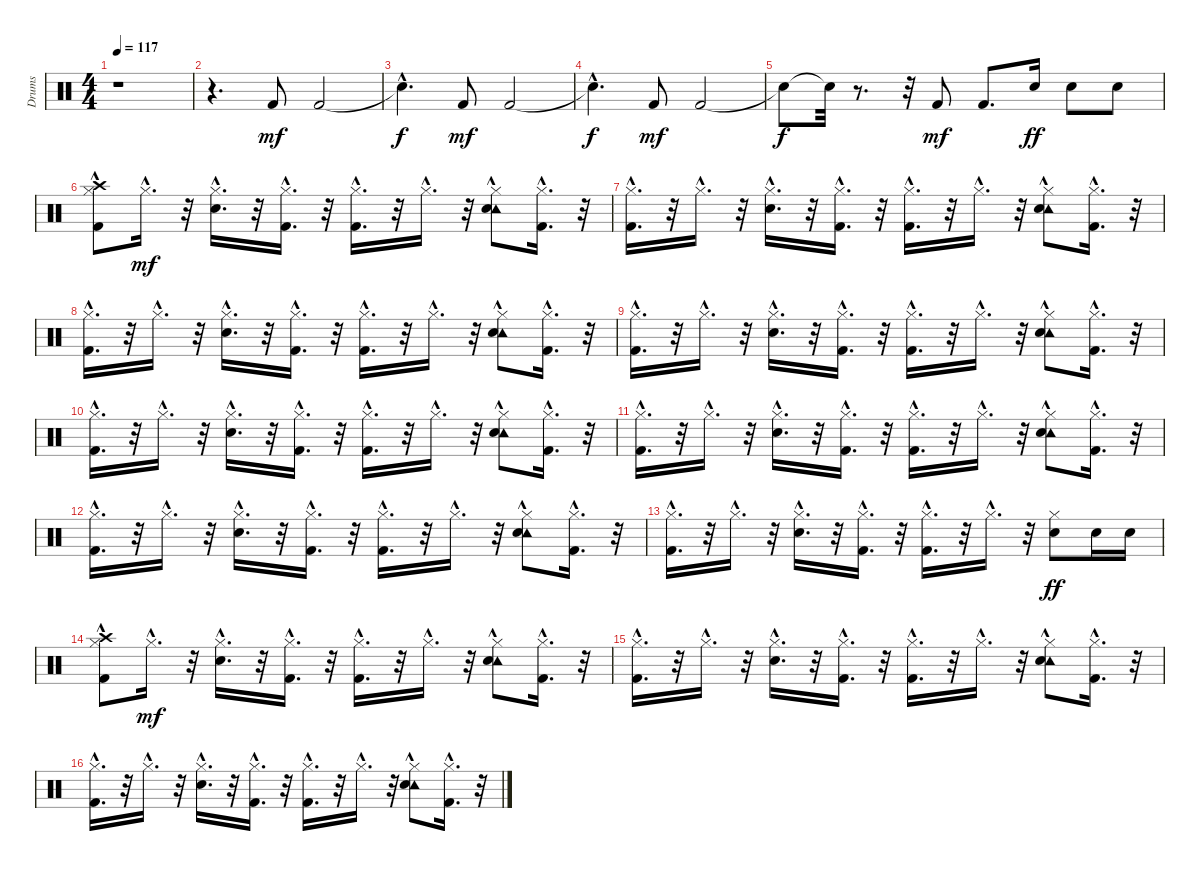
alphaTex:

\track ("Drums" "Drums") {instrument percussion}
\staff {score}
\articulation defaults
\ts (4 4)
\tempo 117
\clef neutral
\ks c
r.1{dy mf} |
r.4{d} "Kick (hit) 2".8{volume 9} "Kick (hit) 2".2 |
"Snare (hit)"{hac t}.4{d dy f} "Kick (hit) 2".8{dy mf} "Kick (hit) 2".2 |
"Snare (hit)"{hac t}.4{d dy f} "Kick (hit) 2".8{dy mf} "Kick (hit) 2".2 |
"Snare (hit)"{t}.8{dy f} "Snare (hit)"{t}.32 r.8{d} r.32 "Kick (hit) 2".8{dy mf} "Kick (hit) 2".8{d} "Snare (hit) 2".16{dy ff} "Snare (hit) 2".8 "Snare (hit) 2".8 |
("Kick (hit) 2"{hac} "Hi-Hat (closed)"{hac} "Crash high (hit)").8 "Hi-Hat (closed)"{hac}.16{d dy mf} r.32 ("Snare (hit) 2"{hac} "Hi-Hat (closed)"{hac}).16{d} r.32 ("Kick (hit) 2"{hac} "Hi-Hat (closed)"{hac}).16{d} r.32 ("Kick (hit) 2"{hac} "Hi-Hat (closed)"{hac}).16{d} r.32 "Hi-Hat (closed)"{hac}.16{d} r.32 ("Tambourine (hit)" "Snare (hit) 2" "Hi-Hat (closed)"{hac}).8 ("Kick (hit) 2"{hac} "Hi-Hat (closed)"{hac}).16{d} r.32 |
("Kick (hit) 2"{hac} "Hi-Hat (closed)"{hac}).16{d} r.32 "Hi-Hat (closed)"{hac}.16{d} r.32 ("Snare (hit) 2"{hac} "Hi-Hat (closed)"{hac}).16{d} r.32 ("Kick (hit) 2"{hac} "Hi-Hat (closed)"{hac}).16{d} r.32 ("Kick (hit) 2"{hac} "Hi-Hat (closed)"{hac}).16{d} r.32 "Hi-Hat (closed)"{hac}.16{d} r.32 ("Tambourine (hit)" "Snare (hit) 2"{hac} "Hi-Hat (closed)"{hac}).8 ("Kick (hit) 2"{hac} "Hi-Hat (closed)"{hac}).16{d} r.32 |
("Kick (hit) 2"{hac} "Hi-Hat (closed)"{hac}).16{d} r.32 "Hi-Hat (closed)"{hac}.16{d} r.32 ("Snare (hit) 2"{hac} "Hi-Hat (closed)"{hac}).16{d} r.32 ("Kick (hit) 2"{hac} "Hi-Hat (closed)"{hac}).16{d} r.32 ("Kick (hit) 2"{hac} "Hi-Hat (closed)"{hac}).16{d} r.32 "Hi-Hat (closed)"{hac}.16{d} r.32 ("Tambourine (hit)" "Snare (hit) 2"{hac} "Hi-Hat (closed)"{hac}).8 ("Kick (hit) 2"{hac} "Hi-Hat (closed)"{hac}).16{d} r.32 |
("Kick (hit) 2"{hac} "Hi-Hat (closed)"{hac}).16{d} r.32 "Hi-Hat (closed)"{hac}.16{d} r.32 ("Snare (hit) 2"{hac} "Hi-Hat (closed)"{hac}).16{d} r.32 ("Kick (hit) 2"{hac} "Hi-Hat (closed)"{hac}).16{d} r.32 ("Kick (hit) 2"{hac} "Hi-Hat (closed)"{hac}).16{d} r.32 "Hi-Hat (closed)"{hac}.16{d} r.32 ("Tambourine (hit)" "Snare (hit) 2"{hac} "Hi-Hat (closed)"{hac}).8 ("Kick (hit) 2"{hac} "Hi-Hat (closed)"{hac}).16{d} r.32 |
("Kick (hit) 2"{hac} "Hi-Hat (closed)"{hac}).16{d} r.32 "Hi-Hat (closed)"{hac}.16{d} r.32 ("Snare (hit) 2"{hac} "Hi-Hat (closed)"{hac}).16{d} r.32 ("Kick (hit) 2"{hac} "Hi-Hat (closed)"{hac}).16{d} r.32 ("Kick (hit) 2"{hac} "Hi-Hat (closed)"{hac}).16{d} r.32 "Hi-Hat (closed)"{hac}.16{d} r.32 ("Tambourine (hit)" "Snare (hit) 2"{hac} "Hi-Hat (closed)"{hac}).8 ("Kick (hit) 2"{hac} "Hi-Hat (closed)"{hac}).16{d} r.32 |
("Kick (hit) 2"{hac} "Hi-Hat (closed)"{hac}).16{d} r.32 "Hi-Hat (closed)"{hac}.16{d} r.32 ("Snare (hit) 2"{hac} "Hi-Hat (closed)"{hac}).16{d} r.32 ("Kick (hit) 2"{hac} "Hi-Hat (closed)"{hac}).16{d} r.32 ("Kick (hit) 2"{hac} "Hi-Hat (closed)"{hac}).16{d} r.32 "Hi-Hat (closed)"{hac}.16{d} r.32 ("Tambourine (hit)" "Snare (hit) 2"{hac} "Hi-Hat (closed)"{hac}).8 ("Kick (hit) 2"{hac} "Hi-Hat (closed)"{hac}).16{d} r.32 |
("Kick (hit) 2"{hac} "Hi-Hat (closed)"{hac}).16{d} r.32 "Hi-Hat (closed)"{hac}.16{d} r.32 ("Snare (hit) 2"{hac} "Hi-Hat (closed)"{hac}).16{d} r.32 ("Kick (hit) 2"{hac} "Hi-Hat (closed)"{hac}).16{d} r.32 ("Kick (hit) 2"{hac} "Hi-Hat (closed)"{hac}).16{d} r.32 "Hi-Hat (closed)"{hac}.16{d} r.32 ("Tambourine (hit)" "Snare (hit) 2"{hac} "Hi-Hat (closed)"{hac}).8 ("Kick (hit) 2"{hac} "Hi-Hat (closed)"{hac}).16{d} r.32 |
("Kick (hit) 2"{hac} "Hi-Hat (closed)"{hac}).16{d} r.32 "Hi-Hat (closed)"{hac}.16{d} r.32 ("Snare (hit) 2"{hac} "Hi-Hat (closed)"{hac}).16{d} r.32 ("Kick (hit) 2"{hac} "Hi-Hat (closed)"{hac}).16{d} r.32 ("Kick (hit) 2"{hac} "Hi-Hat (closed)"{hac}).16{d} r.32 "Hi-Hat (closed)"{hac}.16{d} r.32 ("Hi-Hat (closed)" "Snare (hit) 2").8{dy ff} "Snare (hit) 2".16 "Snare (hit) 2".16 |
("Kick (hit) 2"{hac} "Hi-Hat (closed)"{hac} "Crash high (hit)").8 "Hi-Hat (closed)"{hac}.16{d dy mf} r.32 ("Snare (hit) 2"{hac} "Hi-Hat (closed)"{hac}).16{d} r.32 ("Kick (hit) 2"{hac} "Hi-Hat (closed)"{hac}).16{d} r.32 ("Kick (hit) 2"{hac} "Hi-Hat (closed)"{hac}).16{d} r.32 "Hi-Hat (closed)"{hac}.16{d} r.32 ("Tambourine (hit)" "Snare (hit) 2"{hac} "Hi-Hat (closed)"{hac}).8 ("Kick (hit) 2"{hac} "Hi-Hat (closed)"{hac}).16{d} r.32 |
("Kick (hit) 2"{hac} "Hi-Hat (closed)"{hac}).16{d} r.32 "Hi-Hat (closed)"{hac}.16{d} r.32 ("Snare (hit) 2"{hac} "Hi-Hat (closed)"{hac}).16{d} r.32 ("Kick (hit) 2"{hac} "Hi-Hat (closed)"{hac}).16{d} r.32 ("Kick (hit) 2"{hac} "Hi-Hat (closed)"{hac}).16{d} r.32 "Hi-Hat (closed)"{hac}.16{d} r.32 ("Tambourine (hit)" "Snare (hit) 2"{hac} "Hi-Hat (closed)"{hac}).8 ("Kick (hit) 2"{hac} "Hi-Hat (closed)"{hac}).16{d} r.32 |
("Kick (hit) 2"{hac} "Hi-Hat (closed)"{hac}).16{d} r.32 "Hi-Hat (closed)"{hac}.16{d} r.32 ("Snare (hit) 2"{hac} "Hi-Hat (closed)"{hac}).16{d} r.32 ("Kick (hit) 2"{hac} "Hi-Hat (closed)"{hac}).16{d} r.32 ("Kick (hit) 2"{hac} "Hi-Hat (closed)"{hac}).16{d} r.32 "Hi-Hat (closed)"{hac}.16{d} r.32 ("Tambourine (hit)" "Snare (hit) 2"{hac} "Hi-Hat (closed)"{hac}).8 ("Kick (hit) 2"{hac} "Hi-Hat (closed)"{hac}).16{d} r.32
